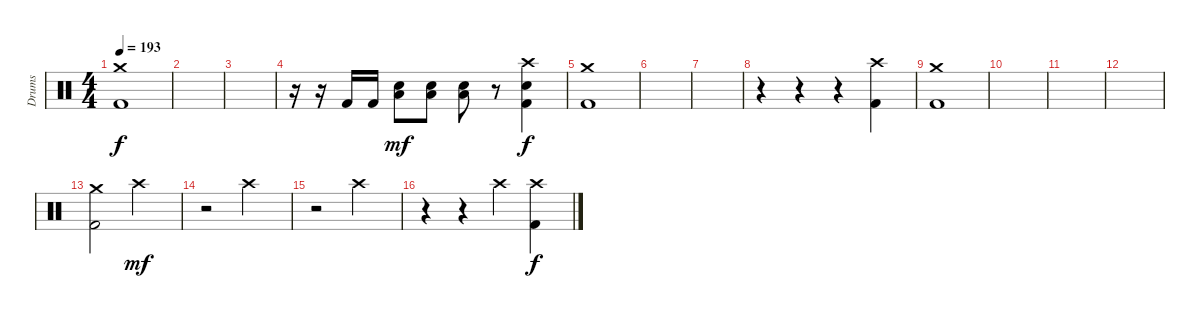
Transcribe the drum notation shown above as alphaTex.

\track ("Drums" "Drums") {instrument percussion}
\staff {score}
\articulation defaults
\ts (4 4)
\tempo 193
\clef neutral
\ks c
("Crash medium (hit)" "Kick (hit) 2").1{dy f} |
|
|
r.16 r.16 "Kick (hit) 2".16 "Kick (hit) 2".16 ("Low Floor Tom (hit)" "Snare (hit) 2").8{dy mf} ("Low Floor Tom (hit)" "Snare (hit) 2").8 ("Low Floor Tom (hit)" "Snare (hit) 2").8 r.8 ("Crash high (hit)" "Snare (hit) 2" "Kick (hit) 2").4{dy f} |
("Crash medium (hit)" "Kick (hit) 2").1 |
|
|
r.4 r.4 r.4 ("Crash high (hit)" "Kick (hit) 2").4 |
("Crash medium (hit)" "Kick (hit) 2").1 |
|
|
|
("Crash medium (hit)" "Kick (hit) 2").2 "Crash high (hit)".2{dy mf} |
r.2 "Crash high (hit)".2 |
r.2 "Crash high (hit)".2 |
r.4 r.4 "Crash high (hit)".4 ("Crash high (hit)" "Kick (hit) 2").4{dy f}
